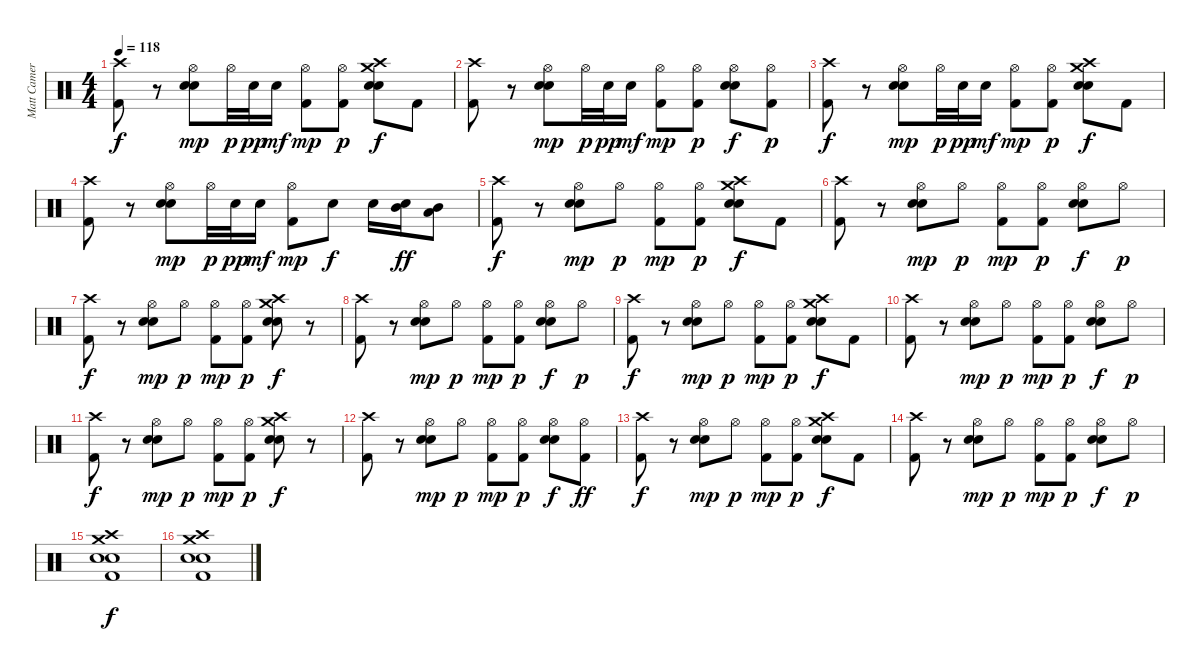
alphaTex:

\track ("Matt Cameron" "Matt Camer") {instrument percussion}
\staff
\articulation defaults
\ts (4 4)
\tempo 118
\clef neutral
\ks c
("Crash high (hit)" "Kick (hit) 2").8{dy f} r.8 ("Hi-Hat (open)" "Electric Snare (hit)" "Snare (hit) 2").8{dy mp} "Hi-Hat (open)".32{dy p} "Snare (hit) 2".32{dy pp} "Snare (hit) 2".16{dy mf} ("Hi-Hat (open)" "Kick (hit) 2").8{dy mp} ("Hi-Hat (open)" "Kick (hit) 2").8{dy p} ("Crash medium (hit)" "Crash high (hit)" "Electric Snare (hit)" "Snare (hit) 2").8{dy f} "Kick (hit) 2".8 |
("Crash high (hit)" "Kick (hit) 2").8 r.8 ("Hi-Hat (open)" "Electric Snare (hit)" "Snare (hit) 2").8{dy mp} "Hi-Hat (open)".32{dy p} "Snare (hit) 2".32{dy pp} "Snare (hit) 2".16{dy mf} ("Hi-Hat (open)" "Kick (hit) 2").8{dy mp} ("Hi-Hat (open)" "Kick (hit) 2").8{dy p} ("Hi-Hat (open)" "Electric Snare (hit)" "Snare (hit) 2").8{dy f} ("Hi-Hat (open)" "Kick (hit) 2").8{dy p} |
("Crash high (hit)" "Kick (hit) 2").8{dy f} r.8 ("Hi-Hat (open)" "Electric Snare (hit)" "Snare (hit) 2").8{dy mp} "Hi-Hat (open)".32{dy p} "Snare (hit) 2".32{dy pp} "Snare (hit) 2".16{dy mf} ("Hi-Hat (open)" "Kick (hit) 2").8{dy mp} ("Hi-Hat (open)" "Kick (hit) 2").8{dy p} ("Crash medium (hit)" "Crash high (hit)" "Electric Snare (hit)" "Snare (hit) 2").8{dy f} "Kick (hit) 2".8 |
("Crash high (hit)" "Kick (hit) 2").8 r.8 ("Hi-Hat (open)" "Electric Snare (hit)" "Snare (hit) 2").8{dy mp} "Hi-Hat (open)".32{dy p} "Snare (hit) 2".32{dy pp} "Snare (hit) 2".16{dy mf} ("Hi-Hat (open)" "Kick (hit) 2").8{dy mp} "Electric Snare (hit)".8{dy f} "Electric Snare (hit)".16 ("Electric Snare (hit)" "Mid Tom (hit)").16{dy ff} ("Mid Tom (hit)" "Low Tom (hit)").8 |
("Crash high (hit)" "Kick (hit) 2").8{dy f} r.8 ("Hi-Hat (open)" "Electric Snare (hit)" "Snare (hit) 2").8{dy mp} "Hi-Hat (open)".8{dy p} ("Hi-Hat (open)" "Kick (hit) 2").8{dy mp} ("Hi-Hat (open)" "Kick (hit) 2").8{dy p} ("Crash medium (hit)" "Crash high (hit)" "Electric Snare (hit)" "Snare (hit) 2").8{dy f} "Kick (hit) 2".8 |
("Crash high (hit)" "Kick (hit) 2").8 r.8 ("Hi-Hat (open)" "Electric Snare (hit)" "Snare (hit) 2").8{dy mp} "Hi-Hat (open)".8{dy p} ("Hi-Hat (open)" "Kick (hit) 2").8{dy mp} ("Hi-Hat (open)" "Kick (hit) 2").8{dy p} ("Hi-Hat (open)" "Electric Snare (hit)" "Snare (hit) 2").8{dy f} "Hi-Hat (open)".8{dy p} |
("Crash high (hit)" "Kick (hit) 2").8{dy f} r.8 ("Hi-Hat (open)" "Electric Snare (hit)" "Snare (hit) 2").8{dy mp} "Hi-Hat (open)".8{dy p} ("Hi-Hat (open)" "Kick (hit) 2").8{dy mp} ("Hi-Hat (open)" "Kick (hit) 2").8{dy p} ("Crash medium (hit)" "Crash high (hit)" "Electric Snare (hit)" "Snare (hit) 2").8{dy f} r.8 |
("Crash high (hit)" "Kick (hit) 2").8 r.8 ("Hi-Hat (open)" "Electric Snare (hit)" "Snare (hit) 2").8{dy mp} "Hi-Hat (open)".8{dy p} ("Hi-Hat (open)" "Kick (hit) 2").8{dy mp} ("Hi-Hat (open)" "Kick (hit) 2").8{dy p} ("Hi-Hat (open)" "Electric Snare (hit)" "Snare (hit) 2").8{dy f} "Hi-Hat (open)".8{dy p} |
("Crash high (hit)" "Kick (hit) 2").8{dy f} r.8 ("Hi-Hat (open)" "Electric Snare (hit)" "Snare (hit) 2").8{dy mp} "Hi-Hat (open)".8{dy p} ("Hi-Hat (open)" "Kick (hit) 2").8{dy mp} ("Hi-Hat (open)" "Kick (hit) 2").8{dy p} ("Crash medium (hit)" "Crash high (hit)" "Electric Snare (hit)" "Snare (hit) 2").8{dy f} "Kick (hit) 2".8 |
("Crash high (hit)" "Kick (hit) 2").8 r.8 ("Hi-Hat (open)" "Electric Snare (hit)" "Snare (hit) 2").8{dy mp} "Hi-Hat (open)".8{dy p} ("Hi-Hat (open)" "Kick (hit) 2").8{dy mp} ("Hi-Hat (open)" "Kick (hit) 2").8{dy p} ("Hi-Hat (open)" "Electric Snare (hit)" "Snare (hit) 2").8{dy f} "Hi-Hat (open)".8{dy p} |
("Crash high (hit)" "Kick (hit) 2").8{dy f} r.8 ("Hi-Hat (open)" "Electric Snare (hit)" "Snare (hit) 2").8{dy mp} "Hi-Hat (open)".8{dy p} ("Hi-Hat (open)" "Kick (hit) 2").8{dy mp} ("Hi-Hat (open)" "Kick (hit) 2").8{dy p} ("Crash medium (hit)" "Crash high (hit)" "Electric Snare (hit)" "Snare (hit) 2").8{dy f} r.8 |
("Crash high (hit)" "Kick (hit) 2").8 r.8 ("Hi-Hat (open)" "Electric Snare (hit)" "Snare (hit) 2").8{dy mp} "Hi-Hat (open)".8{dy p} ("Hi-Hat (open)" "Kick (hit) 2").8{dy mp} ("Hi-Hat (open)" "Kick (hit) 2").8{dy p} ("Hi-Hat (open)" "Electric Snare (hit)" "Snare (hit) 2").8{dy f} ("Hi-Hat (open)" "Kick (hit) 2").8{dy ff} |
("Crash high (hit)" "Kick (hit) 2").8{dy f} r.8 ("Hi-Hat (open)" "Electric Snare (hit)" "Snare (hit) 2").8{dy mp} "Hi-Hat (open)".8{dy p} ("Hi-Hat (open)" "Kick (hit) 2").8{dy mp} ("Hi-Hat (open)" "Kick (hit) 2").8{dy p} ("Crash medium (hit)" "Crash high (hit)" "Electric Snare (hit)" "Snare (hit) 2").8{dy f} "Kick (hit) 2".8 |
("Crash high (hit)" "Kick (hit) 2").8 r.8 ("Hi-Hat (open)" "Electric Snare (hit)" "Snare (hit) 2").8{dy mp} "Hi-Hat (open)".8{dy p} ("Hi-Hat (open)" "Kick (hit) 2").8{dy mp} ("Hi-Hat (open)" "Kick (hit) 2").8{dy p} ("Hi-Hat (open)" "Electric Snare (hit)" "Snare (hit) 2").8{dy f} "Hi-Hat (open)".8{dy p} |
("Crash medium (hit)" "Crash high (hit)" "Electric Snare (hit)" "Snare (hit) 2" "Kick (hit) 2").1{dy f} |
("Crash medium (hit)" "Crash high (hit)" "Electric Snare (hit)" "Snare (hit) 2" "Kick (hit) 2").1
